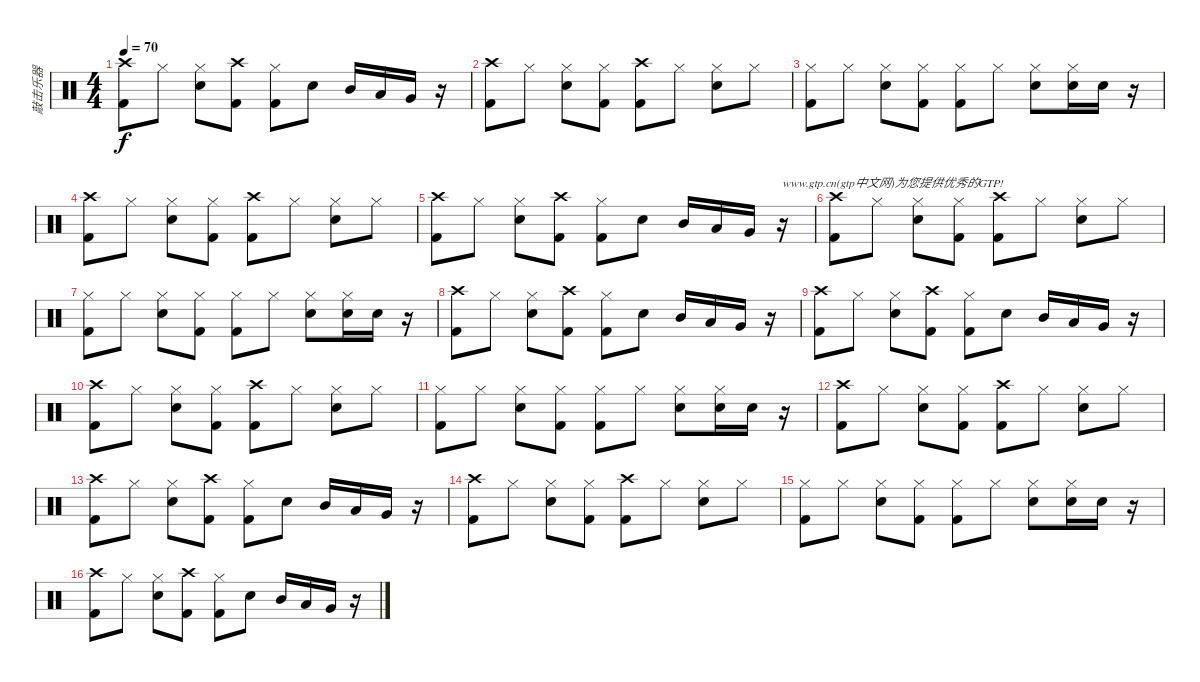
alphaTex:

\track ("敲击乐器" "敲击乐器") {instrument percussion}
\staff {score}
\articulation defaults
\ts (4 4)
\tempo 70
\clef neutral
\ks c
("Crash high (hit)" "Kick (hit) 2").8{dy f} "Hi-Hat (closed)".8 ("Hi-Hat (closed)" "Electric Snare (hit)").8 ("Crash high (hit)" "Kick (hit) 2").8 ("Hi-Hat (closed)" "Kick (hit) 2").8 "Electric Snare (hit)".8 "Mid Tom (hit)".16 "Low Tom (hit)".16 "Very Low Tom (hit)".16 r.16 |
("Crash high (hit)" "Kick (hit) 2").8 "Hi-Hat (closed)".8 ("Hi-Hat (closed)" "Electric Snare (hit)").8 ("Hi-Hat (closed)" "Kick (hit) 2").8 ("Crash high (hit)" "Kick (hit) 2").8 "Hi-Hat (closed)".8 ("Hi-Hat (closed)" "Electric Snare (hit)").8 "Hi-Hat (closed)".8 |
("Hi-Hat (closed)" "Kick (hit) 2").8 "Hi-Hat (closed)".8 ("Hi-Hat (closed)" "Electric Snare (hit)").8 ("Hi-Hat (closed)" "Kick (hit) 2").8 ("Hi-Hat (closed)" "Kick (hit) 2").8 "Hi-Hat (closed)".8 ("Hi-Hat (closed)" "Electric Snare (hit)").8 ("Hi-Hat (closed)" "Electric Snare (hit)").16 "Electric Snare (hit)".16 r.16 |
("Crash high (hit)" "Kick (hit) 2").8 "Hi-Hat (closed)".8 ("Hi-Hat (closed)" "Electric Snare (hit)").8 ("Hi-Hat (closed)" "Kick (hit) 2").8 ("Crash high (hit)" "Kick (hit) 2").8 "Hi-Hat (closed)".8 ("Hi-Hat (closed)" "Electric Snare (hit)").8 "Hi-Hat (closed)".8 |
("Crash high (hit)" "Kick (hit) 2").8 "Hi-Hat (closed)".8 ("Hi-Hat (closed)" "Electric Snare (hit)").8 ("Crash high (hit)" "Kick (hit) 2").8 ("Hi-Hat (closed)" "Kick (hit) 2").8 "Electric Snare (hit)".8 "Mid Tom (hit)".16 "Low Tom (hit)".16 "Very Low Tom (hit)".16 r.16{txt "www.gtp.cn(gtp中文网)为您提供优秀的GTP!"} |
("Crash high (hit)" "Kick (hit) 2").8 "Hi-Hat (closed)".8 ("Hi-Hat (closed)" "Electric Snare (hit)").8 ("Hi-Hat (closed)" "Kick (hit) 2").8 ("Crash high (hit)" "Kick (hit) 2").8 "Hi-Hat (closed)".8 ("Hi-Hat (closed)" "Electric Snare (hit)").8 "Hi-Hat (closed)".8 |
("Hi-Hat (closed)" "Kick (hit) 2").8 "Hi-Hat (closed)".8 ("Hi-Hat (closed)" "Electric Snare (hit)").8 ("Hi-Hat (closed)" "Kick (hit) 2").8 ("Hi-Hat (closed)" "Kick (hit) 2").8 "Hi-Hat (closed)".8 ("Hi-Hat (closed)" "Electric Snare (hit)").8 ("Hi-Hat (closed)" "Electric Snare (hit)").16 "Electric Snare (hit)".16 r.16 |
("Crash high (hit)" "Kick (hit) 2").8 "Hi-Hat (closed)".8 ("Hi-Hat (closed)" "Electric Snare (hit)").8 ("Crash high (hit)" "Kick (hit) 2").8 ("Hi-Hat (closed)" "Kick (hit) 2").8 "Electric Snare (hit)".8 "Mid Tom (hit)".16 "Low Tom (hit)".16 "Very Low Tom (hit)".16 r.16 |
("Crash high (hit)" "Kick (hit) 2").8 "Hi-Hat (closed)".8 ("Hi-Hat (closed)" "Electric Snare (hit)").8 ("Crash high (hit)" "Kick (hit) 2").8 ("Hi-Hat (closed)" "Kick (hit) 2").8 "Electric Snare (hit)".8 "Mid Tom (hit)".16 "Low Tom (hit)".16 "Very Low Tom (hit)".16 r.16 |
("Crash high (hit)" "Kick (hit) 2").8 "Hi-Hat (closed)".8 ("Hi-Hat (closed)" "Electric Snare (hit)").8 ("Hi-Hat (closed)" "Kick (hit) 2").8 ("Crash high (hit)" "Kick (hit) 2").8 "Hi-Hat (closed)".8 ("Hi-Hat (closed)" "Electric Snare (hit)").8 "Hi-Hat (closed)".8 |
("Hi-Hat (closed)" "Kick (hit) 2").8 "Hi-Hat (closed)".8 ("Hi-Hat (closed)" "Electric Snare (hit)").8 ("Hi-Hat (closed)" "Kick (hit) 2").8 ("Hi-Hat (closed)" "Kick (hit) 2").8 "Hi-Hat (closed)".8 ("Hi-Hat (closed)" "Electric Snare (hit)").8 ("Hi-Hat (closed)" "Electric Snare (hit)").16 "Electric Snare (hit)".16 r.16 |
("Crash high (hit)" "Kick (hit) 2").8 "Hi-Hat (closed)".8 ("Hi-Hat (closed)" "Electric Snare (hit)").8 ("Hi-Hat (closed)" "Kick (hit) 2").8 ("Crash high (hit)" "Kick (hit) 2").8 "Hi-Hat (closed)".8 ("Hi-Hat (closed)" "Electric Snare (hit)").8 "Hi-Hat (closed)".8 |
("Crash high (hit)" "Kick (hit) 2").8 "Hi-Hat (closed)".8 ("Hi-Hat (closed)" "Electric Snare (hit)").8 ("Crash high (hit)" "Kick (hit) 2").8 ("Hi-Hat (closed)" "Kick (hit) 2").8 "Electric Snare (hit)".8 "Mid Tom (hit)".16 "Low Tom (hit)".16 "Very Low Tom (hit)".16 r.16 |
("Crash high (hit)" "Kick (hit) 2").8 "Hi-Hat (closed)".8 ("Hi-Hat (closed)" "Electric Snare (hit)").8 ("Hi-Hat (closed)" "Kick (hit) 2").8 ("Crash high (hit)" "Kick (hit) 2").8 "Hi-Hat (closed)".8 ("Hi-Hat (closed)" "Electric Snare (hit)").8 "Hi-Hat (closed)".8 |
("Hi-Hat (closed)" "Kick (hit) 2").8 "Hi-Hat (closed)".8 ("Hi-Hat (closed)" "Electric Snare (hit)").8 ("Hi-Hat (closed)" "Kick (hit) 2").8 ("Hi-Hat (closed)" "Kick (hit) 2").8 "Hi-Hat (closed)".8 ("Hi-Hat (closed)" "Electric Snare (hit)").8 ("Hi-Hat (closed)" "Electric Snare (hit)").16 "Electric Snare (hit)".16 r.16 |
("Crash high (hit)" "Kick (hit) 2").8 "Hi-Hat (closed)".8 ("Hi-Hat (closed)" "Electric Snare (hit)").8 ("Crash high (hit)" "Kick (hit) 2").8 ("Hi-Hat (closed)" "Kick (hit) 2").8 "Electric Snare (hit)".8 "Mid Tom (hit)".16 "Low Tom (hit)".16 "Very Low Tom (hit)".16 r.16
